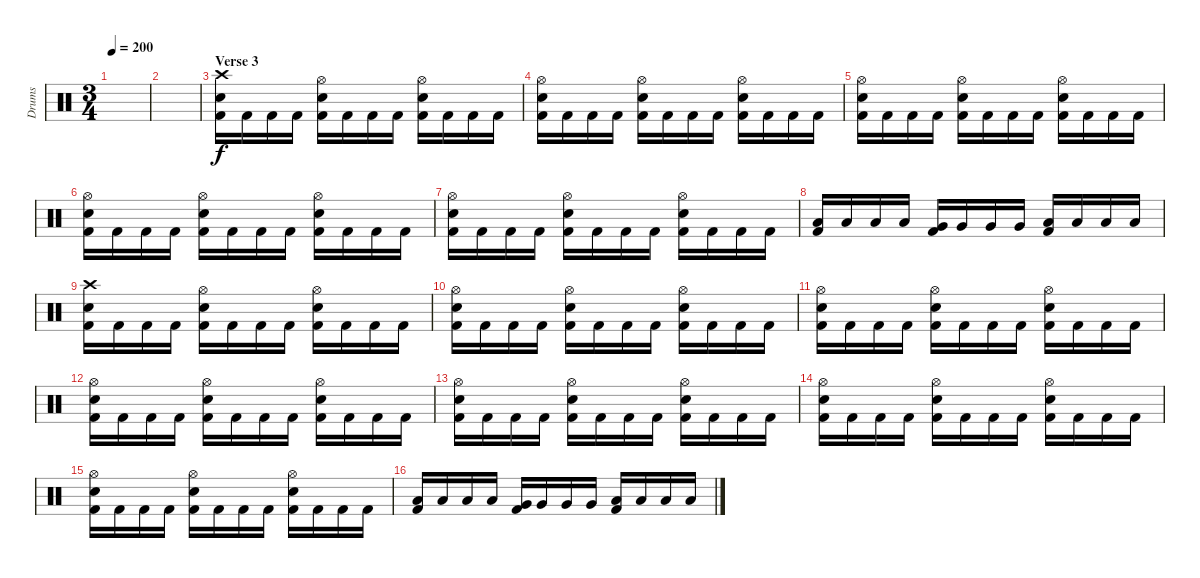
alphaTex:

\track ("Drums" "Drums") {instrument percussion}
\staff {score}
\articulation defaults
\ts (3 4)
\tempo 200
\clef neutral
\ks c
|
|
\section ("" "Verse 3")
("Crash high (hit)" "Snare (hit) 2" "Kick (hit) 2").16 "Kick (hit) 2".16 "Kick (hit) 2".16 "Kick (hit) 2".16 ("Hi-Hat (open)" "Snare (hit) 2" "Kick (hit) 2").16 "Kick (hit) 2".16 "Kick (hit) 2".16 "Kick (hit) 2".16 ("Hi-Hat (open)" "Snare (hit) 2" "Kick (hit) 2").16 "Kick (hit) 2".16 "Kick (hit) 2".16 "Kick (hit) 2".16 |
("Hi-Hat (open)" "Snare (hit) 2" "Kick (hit) 2").16 "Kick (hit) 2".16 "Kick (hit) 2".16 "Kick (hit) 2".16 ("Hi-Hat (open)" "Snare (hit) 2" "Kick (hit) 2").16 "Kick (hit) 2".16 "Kick (hit) 2".16 "Kick (hit) 2".16 ("Hi-Hat (open)" "Snare (hit) 2" "Kick (hit) 2").16 "Kick (hit) 2".16 "Kick (hit) 2".16 "Kick (hit) 2".16 |
("Hi-Hat (open)" "Snare (hit) 2" "Kick (hit) 2").16 "Kick (hit) 2".16 "Kick (hit) 2".16 "Kick (hit) 2".16 ("Hi-Hat (open)" "Snare (hit) 2" "Kick (hit) 2").16 "Kick (hit) 2".16 "Kick (hit) 2".16 "Kick (hit) 2".16 ("Hi-Hat (open)" "Snare (hit) 2" "Kick (hit) 2").16 "Kick (hit) 2".16 "Kick (hit) 2".16 "Kick (hit) 2".16 |
("Hi-Hat (open)" "Snare (hit) 2" "Kick (hit) 2").16 "Kick (hit) 2".16 "Kick (hit) 2".16 "Kick (hit) 2".16 ("Hi-Hat (open)" "Snare (hit) 2" "Kick (hit) 2").16 "Kick (hit) 2".16 "Kick (hit) 2".16 "Kick (hit) 2".16 ("Hi-Hat (open)" "Snare (hit) 2" "Kick (hit) 2").16 "Kick (hit) 2".16 "Kick (hit) 2".16 "Kick (hit) 2".16 |
("Hi-Hat (open)" "Snare (hit) 2" "Kick (hit) 2").16 "Kick (hit) 2".16 "Kick (hit) 2".16 "Kick (hit) 2".16 ("Hi-Hat (open)" "Snare (hit) 2" "Kick (hit) 2").16 "Kick (hit) 2".16 "Kick (hit) 2".16 "Kick (hit) 2".16 ("Hi-Hat (open)" "Snare (hit) 2" "Kick (hit) 2").16 "Kick (hit) 2".16 "Kick (hit) 2".16 "Kick (hit) 2".16 |
("Low Tom (hit)" "Kick (hit) 2").16 "Low Tom (hit)".16 "Low Tom (hit)".16 "Low Tom (hit)".16 ("Very Low Tom (hit)" "Kick (hit) 2").16 "Very Low Tom (hit)".16 "Very Low Tom (hit)".16 "Very Low Tom (hit)".16 ("Low Floor Tom (hit)" "Kick (hit) 2").16 "Low Floor Tom (hit)".16 "Low Floor Tom (hit)".16 "Low Floor Tom (hit)".16 |
("Crash high (hit)" "Snare (hit) 2" "Kick (hit) 2").16 "Kick (hit) 2".16 "Kick (hit) 2".16 "Kick (hit) 2".16 ("Hi-Hat (open)" "Snare (hit) 2" "Kick (hit) 2").16 "Kick (hit) 2".16 "Kick (hit) 2".16 "Kick (hit) 2".16 ("Hi-Hat (open)" "Snare (hit) 2" "Kick (hit) 2").16 "Kick (hit) 2".16 "Kick (hit) 2".16 "Kick (hit) 2".16 |
("Hi-Hat (open)" "Snare (hit) 2" "Kick (hit) 2").16 "Kick (hit) 2".16 "Kick (hit) 2".16 "Kick (hit) 2".16 ("Hi-Hat (open)" "Snare (hit) 2" "Kick (hit) 2").16 "Kick (hit) 2".16 "Kick (hit) 2".16 "Kick (hit) 2".16 ("Hi-Hat (open)" "Snare (hit) 2" "Kick (hit) 2").16 "Kick (hit) 2".16 "Kick (hit) 2".16 "Kick (hit) 2".16 |
("Hi-Hat (open)" "Snare (hit) 2" "Kick (hit) 2").16 "Kick (hit) 2".16 "Kick (hit) 2".16 "Kick (hit) 2".16 ("Hi-Hat (open)" "Snare (hit) 2" "Kick (hit) 2").16 "Kick (hit) 2".16 "Kick (hit) 2".16 "Kick (hit) 2".16 ("Hi-Hat (open)" "Snare (hit) 2" "Kick (hit) 2").16 "Kick (hit) 2".16 "Kick (hit) 2".16 "Kick (hit) 2".16 |
("Hi-Hat (open)" "Snare (hit) 2" "Kick (hit) 2").16 "Kick (hit) 2".16 "Kick (hit) 2".16 "Kick (hit) 2".16 ("Hi-Hat (open)" "Snare (hit) 2" "Kick (hit) 2").16 "Kick (hit) 2".16 "Kick (hit) 2".16 "Kick (hit) 2".16 ("Hi-Hat (open)" "Snare (hit) 2" "Kick (hit) 2").16 "Kick (hit) 2".16 "Kick (hit) 2".16 "Kick (hit) 2".16 |
("Hi-Hat (open)" "Snare (hit) 2" "Kick (hit) 2").16 "Kick (hit) 2".16 "Kick (hit) 2".16 "Kick (hit) 2".16 ("Hi-Hat (open)" "Snare (hit) 2" "Kick (hit) 2").16 "Kick (hit) 2".16 "Kick (hit) 2".16 "Kick (hit) 2".16 ("Hi-Hat (open)" "Snare (hit) 2" "Kick (hit) 2").16 "Kick (hit) 2".16 "Kick (hit) 2".16 "Kick (hit) 2".16 |
("Hi-Hat (open)" "Snare (hit) 2" "Kick (hit) 2").16 "Kick (hit) 2".16 "Kick (hit) 2".16 "Kick (hit) 2".16 ("Hi-Hat (open)" "Snare (hit) 2" "Kick (hit) 2").16 "Kick (hit) 2".16 "Kick (hit) 2".16 "Kick (hit) 2".16 ("Hi-Hat (open)" "Snare (hit) 2" "Kick (hit) 2").16 "Kick (hit) 2".16 "Kick (hit) 2".16 "Kick (hit) 2".16 |
("Hi-Hat (open)" "Snare (hit) 2" "Kick (hit) 2").16 "Kick (hit) 2".16 "Kick (hit) 2".16 "Kick (hit) 2".16 ("Hi-Hat (open)" "Snare (hit) 2" "Kick (hit) 2").16 "Kick (hit) 2".16 "Kick (hit) 2".16 "Kick (hit) 2".16 ("Hi-Hat (open)" "Snare (hit) 2" "Kick (hit) 2").16 "Kick (hit) 2".16 "Kick (hit) 2".16 "Kick (hit) 2".16 |
("Low Tom (hit)" "Kick (hit) 2").16 "Low Tom (hit)".16 "Low Tom (hit)".16 "Low Tom (hit)".16 ("Very Low Tom (hit)" "Kick (hit) 2").16 "Very Low Tom (hit)".16 "Very Low Tom (hit)".16 "Very Low Tom (hit)".16 ("Low Floor Tom (hit)" "Kick (hit) 2").16 "Low Floor Tom (hit)".16 "Low Floor Tom (hit)".16 "Low Floor Tom (hit)".16
